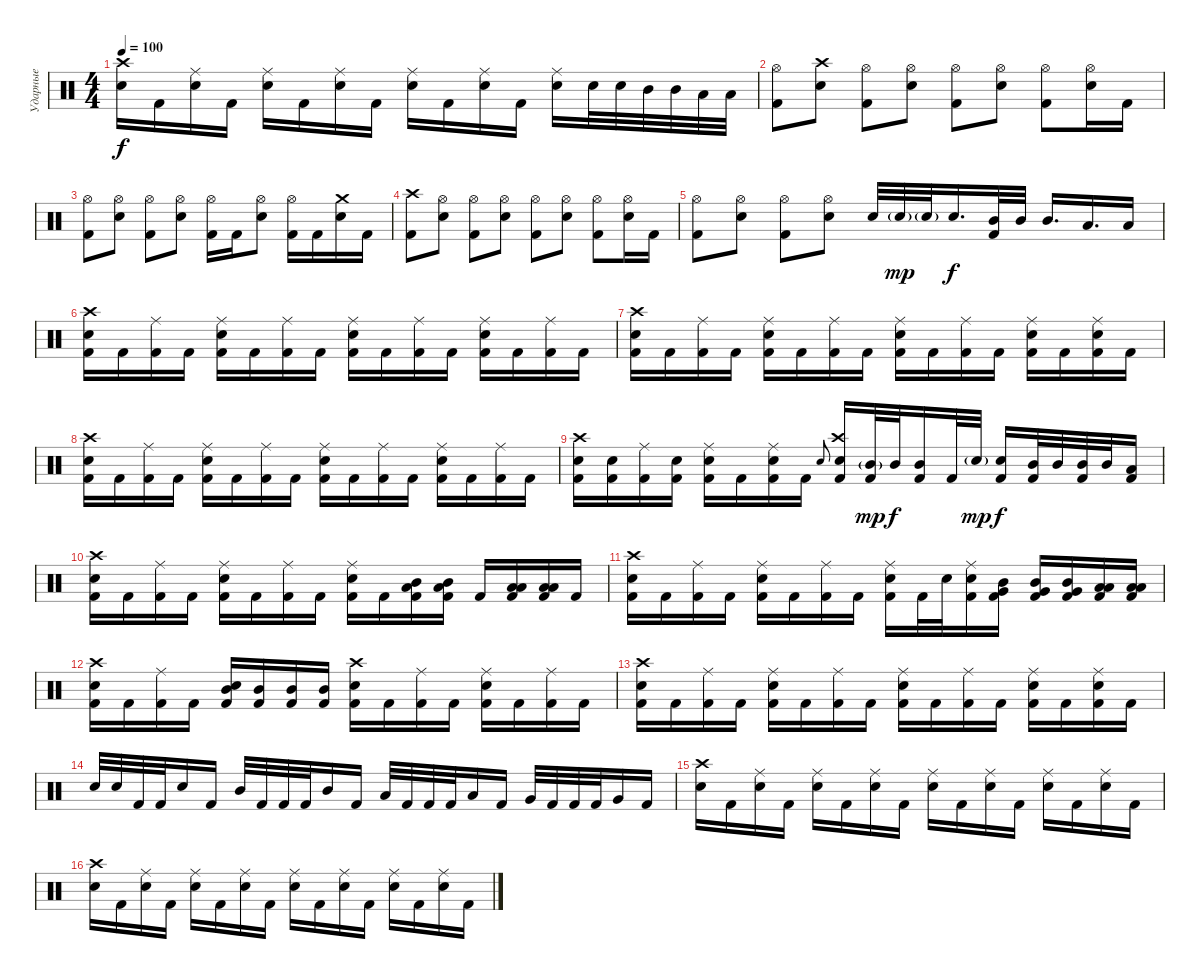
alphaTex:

\track ("Ударные" "Ударные") {instrument percussion}
\staff
\articulation defaults
\ts (4 4)
\tempo 100
\clef neutral
\ks c
("Electric Snare (hit)" "Crash high (hit)").16{dy f} "Kick (hit) 2".16 ("Electric Snare (hit)" "Ride (middle)").16 "Kick (hit) 2".16 ("Electric Snare (hit)" "Ride (middle)").16 "Kick (hit) 2".16 ("Electric Snare (hit)" "Ride (middle)").16 "Kick (hit) 2".16 ("Electric Snare (hit)" "Ride (middle)").16 "Kick (hit) 2".16 ("Electric Snare (hit)" "Ride (middle)").16 "Kick (hit) 2".16 ("Electric Snare (hit)" "Ride (middle)").16 "Electric Snare (hit)".32 "Electric Snare (hit)".32 "Mid Tom (hit)".32 "Mid Tom (hit)".32 "Low Tom (hit)".32 "Low Tom (hit)".32 |
("Kick (hit) 2" "Hi-Hat (open)").8 ("Electric Snare (hit)" "Crash high (hit)").8 ("Kick (hit) 2" "Hi-Hat (open)").8 ("Electric Snare (hit)" "Hi-Hat (open)").8 ("Kick (hit) 2" "Hi-Hat (open)").8 ("Electric Snare (hit)" "Hi-Hat (open)").8 ("Kick (hit) 2" "Hi-Hat (open)").8 ("Electric Snare (hit)" "Hi-Hat (open)").16 "Kick (hit) 2".16 |
("Kick (hit) 2" "Hi-Hat (open)").8 ("Electric Snare (hit)" "Hi-Hat (open)").8 ("Kick (hit) 2" "Hi-Hat (open)").8 ("Electric Snare (hit)" "Hi-Hat (open)").8 ("Kick (hit) 2" "Hi-Hat (open)").16 "Kick (hit) 2".16 ("Electric Snare (hit)" "Hi-Hat (open)").8 ("Kick (hit) 2" "Hi-Hat (open)").16 "Kick (hit) 2".16 ("Electric Snare (hit)" "Crash medium (hit)").16 "Kick (hit) 2".16 |
("Kick (hit) 2" "Crash high (hit)").8 ("Electric Snare (hit)" "Hi-Hat (open)").8 ("Kick (hit) 2" "Hi-Hat (open)").8 ("Electric Snare (hit)" "Hi-Hat (open)").8 ("Kick (hit) 2" "Hi-Hat (open)").8 ("Electric Snare (hit)" "Hi-Hat (open)").8 ("Kick (hit) 2" "Hi-Hat (open)").8 ("Electric Snare (hit)" "Hi-Hat (open)").16 "Kick (hit) 2".16 |
("Kick (hit) 2" "Hi-Hat (open)").8 ("Electric Snare (hit)" "Hi-Hat (open)").8 ("Kick (hit) 2" "Hi-Hat (open)").8 ("Electric Snare (hit)" "Hi-Hat (open)").8 "Electric Snare (hit)".32 "Electric Snare (hit)"{g}.32{dy mp} "Electric Snare (hit)"{g}.32 "Electric Snare (hit)".16{d dy f} ("Kick (hit) 2" "Mid Tom (hit)").32 "Mid Tom (hit)".32 "Mid Tom (hit)".16{d} "Low Tom (hit)".16{d} "Low Tom (hit)".16 |
("Kick (hit) 2" "Electric Snare (hit)" "Crash high (hit)").16 "Kick (hit) 2".16 ("Kick (hit) 2" "Ride (middle)").16 "Kick (hit) 2".16 ("Kick (hit) 2" "Electric Snare (hit)" "Ride (middle)").16 "Kick (hit) 2".16 ("Kick (hit) 2" "Ride (middle)").16 "Kick (hit) 2".16 ("Kick (hit) 2" "Electric Snare (hit)" "Ride (middle)").16 "Kick (hit) 2".16 ("Kick (hit) 2" "Ride (middle)").16 "Kick (hit) 2".16 ("Kick (hit) 2" "Electric Snare (hit)" "Ride (middle)").16 "Kick (hit) 2".16 ("Kick (hit) 2" "Ride (middle)").16 "Kick (hit) 2".16 |
("Kick (hit) 2" "Crash high (hit)" "Electric Snare (hit)").16 "Kick (hit) 2".16 ("Kick (hit) 2" "Ride (middle)").16 "Kick (hit) 2".16 ("Kick (hit) 2" "Electric Snare (hit)" "Ride (middle)").16 "Kick (hit) 2".16 ("Kick (hit) 2" "Ride (middle)").16 "Kick (hit) 2".16 ("Kick (hit) 2" "Electric Snare (hit)" "Ride (middle)").16 "Kick (hit) 2".16 ("Kick (hit) 2" "Ride (middle)").16 "Kick (hit) 2".16 ("Kick (hit) 2" "Electric Snare (hit)" "Ride (middle)").16 "Kick (hit) 2".16 ("Kick (hit) 2" "Electric Snare (hit)" "Ride (middle)").16 "Kick (hit) 2".16 |
("Kick (hit) 2" "Electric Snare (hit)" "Crash high (hit)").16 "Kick (hit) 2".16 ("Kick (hit) 2" "Ride (middle)").16 "Kick (hit) 2".16 ("Kick (hit) 2" "Electric Snare (hit)" "Ride (middle)").16 "Kick (hit) 2".16 ("Kick (hit) 2" "Ride (middle)").16 "Kick (hit) 2".16 ("Kick (hit) 2" "Electric Snare (hit)" "Ride (middle)").16 "Kick (hit) 2".16 ("Kick (hit) 2" "Ride (middle)").16 "Kick (hit) 2".16 ("Kick (hit) 2" "Electric Snare (hit)" "Ride (middle)").16 "Kick (hit) 2".16 ("Kick (hit) 2" "Ride (middle)").16 "Kick (hit) 2".16 |
("Kick (hit) 2" "Crash high (hit)" "Electric Snare (hit)").16 ("Kick (hit) 2" "Electric Snare (hit)").16 ("Kick (hit) 2" "Ride (middle)").16 ("Kick (hit) 2" "Electric Snare (hit)").16 ("Kick (hit) 2" "Electric Snare (hit)" "Ride (middle)").16 "Kick (hit) 2".16 ("Kick (hit) 2" "Electric Snare (hit)" "Ride (middle)").16 "Kick (hit) 2".16 "Electric Snare (hit)".8{gr onbeat} ("Kick (hit) 2" "Electric Snare (hit)" "Crash high (hit)").16 ("Kick (hit) 2" "Mid Tom (hit)"{g}).32{dy mp} "Mid Tom (hit)".32{dy f} ("Kick (hit) 2" "Mid Tom (hit)").16 "Kick (hit) 2".32 "Electric Snare (hit)"{g}.32{dy mp} ("Kick (hit) 2" "Electric Snare (hit)").16{dy f} ("Kick (hit) 2" "Mid Tom (hit)").32 "Mid Tom (hit)".32 ("Kick (hit) 2" "Mid Tom (hit)").32 "Mid Tom (hit)".32 ("Kick (hit) 2" "Low Tom (hit)").16 |
("Kick (hit) 2" "Electric Snare (hit)" "Crash high (hit)").16 "Kick (hit) 2".16 ("Kick (hit) 2" "Ride (middle)").16 "Kick (hit) 2".16 ("Kick (hit) 2" "Electric Snare (hit)" "Ride (middle)").16 "Kick (hit) 2".16 ("Kick (hit) 2" "Ride (middle)").16 "Kick (hit) 2".16 ("Kick (hit) 2" "Electric Snare (hit)" "Ride (middle)").16 "Kick (hit) 2".16 ("Kick (hit) 2" "Mid Tom (hit)" "Low Tom (hit)").16 ("Kick (hit) 2" "Mid Tom (hit)" "Low Tom (hit)").16 "Kick (hit) 2".16 ("Kick (hit) 2" "Low Tom (hit)" "Low Floor Tom (hit)").16 ("Kick (hit) 2" "Low Tom (hit)" "Low Floor Tom (hit)").16 "Kick (hit) 2".16 |
("Kick (hit) 2" "Crash high (hit)" "Electric Snare (hit)").16 "Kick (hit) 2".16 ("Kick (hit) 2" "Ride (middle)").16 "Kick (hit) 2".16 ("Kick (hit) 2" "Electric Snare (hit)" "Ride (middle)").16 "Kick (hit) 2".16 ("Kick (hit) 2" "Ride (middle)").16 "Kick (hit) 2".16 ("Kick (hit) 2" "Electric Snare (hit)" "Ride (middle)").16 "Kick (hit) 2".32 "Electric Snare (hit)".32 ("Kick (hit) 2" "Electric Snare (hit)" "Ride (middle)").16 ("Kick (hit) 2" "Mid Tom (hit)" "Very Low Tom (hit)").16 ("Kick (hit) 2" "Mid Tom (hit)" "Very Low Tom (hit)").16 ("Kick (hit) 2" "Mid Tom (hit)" "Very Low Tom (hit)").16 ("Kick (hit) 2" "Low Tom (hit)" "Low Floor Tom (hit)").16 ("Kick (hit) 2" "Low Tom (hit)" "Low Floor Tom (hit)").16 |
("Kick (hit) 2" "Electric Snare (hit)" "Crash high (hit)").16 "Kick (hit) 2".16 ("Kick (hit) 2" "Ride (middle)").16 "Kick (hit) 2".16 ("Kick (hit) 2" "Electric Snare (hit)" "Mid Tom (hit)").16 ("Kick (hit) 2" "Mid Tom (hit)").16 ("Kick (hit) 2" "Mid Tom (hit)").16 ("Kick (hit) 2" "Mid Tom (hit)").16 ("Kick (hit) 2" "Electric Snare (hit)" "Crash high (hit)").16 "Kick (hit) 2".16 ("Kick (hit) 2" "Ride (middle)").16 "Kick (hit) 2".16 ("Kick (hit) 2" "Electric Snare (hit)" "Ride (middle)").16 "Kick (hit) 2".16 ("Kick (hit) 2" "Ride (middle)").16 "Kick (hit) 2".16 |
("Kick (hit) 2" "Crash high (hit)" "Electric Snare (hit)").16 "Kick (hit) 2".16 ("Kick (hit) 2" "Ride (middle)").16 "Kick (hit) 2".16 ("Kick (hit) 2" "Electric Snare (hit)" "Ride (middle)").16 "Kick (hit) 2".16 ("Kick (hit) 2" "Ride (middle)").16 "Kick (hit) 2".16 ("Kick (hit) 2" "Electric Snare (hit)" "Ride (middle)").16 "Kick (hit) 2".16 ("Kick (hit) 2" "Ride (middle)").16 "Kick (hit) 2".16 ("Kick (hit) 2" "Electric Snare (hit)" "Ride (middle)").16 "Kick (hit) 2".16 ("Kick (hit) 2" "Electric Snare (hit)" "Ride (middle)").16 "Kick (hit) 2".16 |
"Electric Snare (hit)".32 "Electric Snare (hit)".32 "Kick (hit) 2".32 "Kick (hit) 2".32 "Electric Snare (hit)".16 "Kick (hit) 2".16 "Mid Tom (hit)".32 "Kick (hit) 2".32 "Kick (hit) 2".32 "Kick (hit) 2".32 "Mid Tom (hit)".16 "Kick (hit) 2".16 "Low Tom (hit)".32 "Kick (hit) 2".32 "Kick (hit) 2".32 "Kick (hit) 2".32 "Low Tom (hit)".16 "Kick (hit) 2".16 "Very Low Tom (hit)".32 "Kick (hit) 2".32 "Kick (hit) 2".32 "Kick (hit) 2".32 "Very Low Tom (hit)".16 "Kick (hit) 2".16 |
("Electric Snare (hit)" "Crash high (hit)").16 "Kick (hit) 2".16 ("Electric Snare (hit)" "Ride (middle)").16 "Kick (hit) 2".16 ("Electric Snare (hit)" "Ride (middle)").16 "Kick (hit) 2".16 ("Electric Snare (hit)" "Ride (middle)").16 "Kick (hit) 2".16 ("Electric Snare (hit)" "Ride (middle)").16 "Kick (hit) 2".16 ("Electric Snare (hit)" "Ride (middle)").16 "Kick (hit) 2".16 ("Electric Snare (hit)" "Ride (middle)").16 "Kick (hit) 2".16 ("Electric Snare (hit)" "Ride (middle)").16 "Kick (hit) 2".16 |
("Electric Snare (hit)" "Crash high (hit)").16 "Kick (hit) 2".16 ("Electric Snare (hit)" "Ride (middle)").16 "Kick (hit) 2".16 ("Electric Snare (hit)" "Ride (middle)").16 "Kick (hit) 2".16 ("Electric Snare (hit)" "Ride (middle)").16 "Kick (hit) 2".16 ("Electric Snare (hit)" "Ride (middle)").16 "Kick (hit) 2".16 ("Electric Snare (hit)" "Ride (middle)").16 "Kick (hit) 2".16 ("Electric Snare (hit)" "Ride (middle)").16 "Kick (hit) 2".16 ("Electric Snare (hit)" "Ride (middle)").16 "Kick (hit) 2".16
